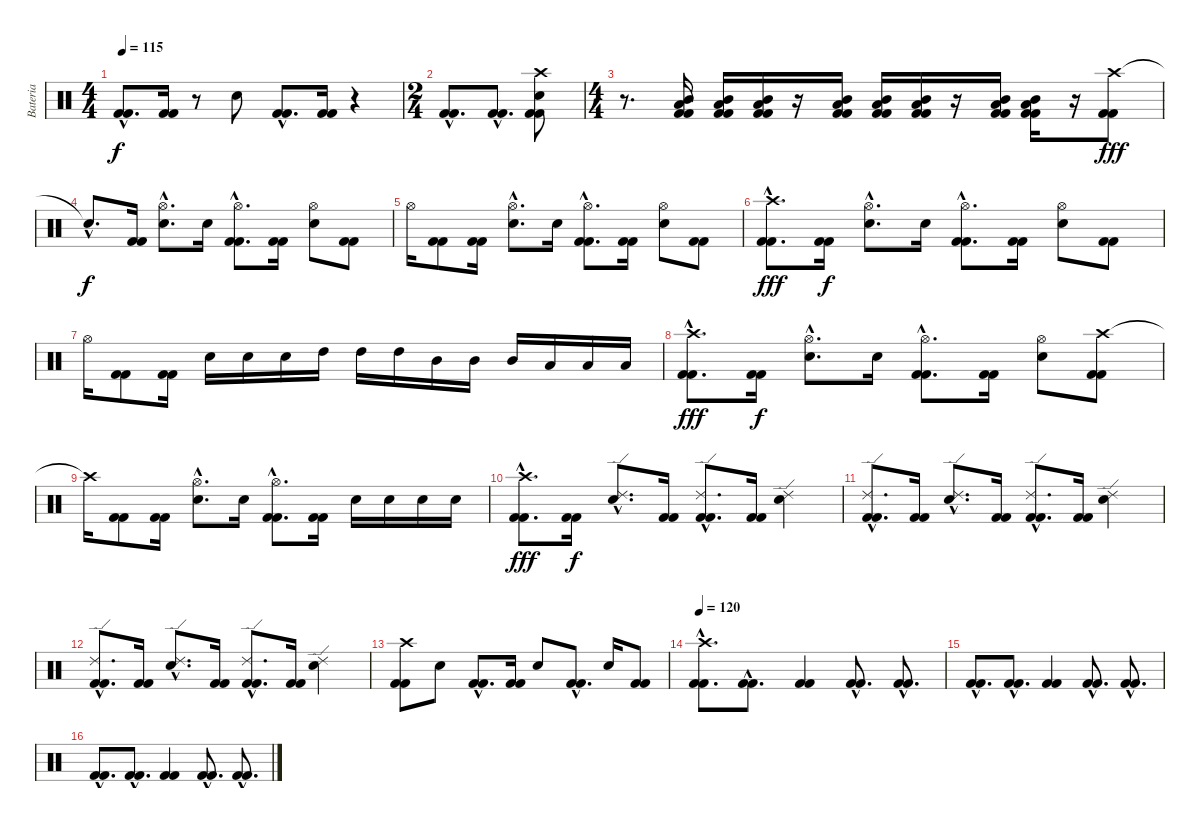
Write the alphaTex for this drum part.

\track ("Bateria" "Bateria") {instrument percussion}
\staff {score}
\articulation defaults
\ts (4 4)
\tempo 115
\clef neutral
\ks c
("Kick (hit) 2"{hac} "Kick (hit) 2"{hac}).8{d dy f} ("Kick (hit) 2" "Kick (hit) 2").16 r.8 "Electric Snare (hit)".8 ("Kick (hit) 2"{hac} "Kick (hit) 2"{hac}).8{d} ("Kick (hit) 2" "Kick (hit) 2").16 r.4 |
\ts (2 4)
("Kick (hit) 2"{hac} "Kick (hit) 2"{hac}).8{d} ("Kick (hit) 2"{hac} "Kick (hit) 2"{hac}).8{d} ("Crash high (hit)" "Electric Snare (hit)" "Kick (hit) 2" "Kick (hit) 2").8 |
\ts (4 4)
r.8{d} ("Mid Tom (hit)" "Low Tom (hit)" "Kick (hit) 2" "Kick (hit) 2").16 ("Mid Tom (hit)" "Low Tom (hit)" "Kick (hit) 2" "Kick (hit) 2").16 ("Mid Tom (hit)" "Low Tom (hit)" "Kick (hit) 2" "Kick (hit) 2").16 r.16 ("Mid Tom (hit)" "Low Tom (hit)" "Kick (hit) 2" "Kick (hit) 2").16 ("Mid Tom (hit)" "Low Tom (hit)" "Kick (hit) 2" "Kick (hit) 2").16 ("Mid Tom (hit)" "Low Tom (hit)" "Kick (hit) 2" "Kick (hit) 2").16 r.16 ("Mid Tom (hit)" "Low Tom (hit)" "Kick (hit) 2" "Kick (hit) 2").16 ("Mid Tom (hit)" "Low Tom (hit)" "Kick (hit) 2" "Kick (hit) 2").16 r.16 ("Crash high (hit)" "Kick (hit) 2" "Kick (hit) 2").8{dy fff} |
"Snare (hit)"{hac t}.8{d dy f} ("Kick (hit) 2" "Kick (hit) 2").16 ("Hi-Hat (open)"{hac} "Electric Snare (hit)"{hac}).8{d} "Electric Snare (hit)".16 ("Hi-Hat (open)"{hac} "Kick (hit) 2"{hac} "Kick (hit) 2"{hac}).8{d} ("Kick (hit) 2" "Kick (hit) 2").16 ("Hi-Hat (open)" "Electric Snare (hit)").8 ("Kick (hit) 2" "Kick (hit) 2").8 |
"Hi-Hat (open)".16 ("Kick (hit) 2" "Kick (hit) 2").8 ("Kick (hit) 2" "Kick (hit) 2").16 ("Hi-Hat (open)"{hac} "Electric Snare (hit)"{hac}).8{d} "Electric Snare (hit)".16 ("Hi-Hat (open)"{hac} "Kick (hit) 2"{hac} "Kick (hit) 2"{hac}).8{d} ("Kick (hit) 2" "Kick (hit) 2").16 ("Hi-Hat (open)" "Electric Snare (hit)").8 ("Kick (hit) 2" "Kick (hit) 2").8 |
("Crash high (hit)" "Kick (hit) 2"{hac} "Kick (hit) 2"{hac}).8{d dy fff} ("Kick (hit) 2" "Kick (hit) 2").16{dy f} ("Hi-Hat (open)"{hac} "Electric Snare (hit)"{hac}).8{d} "Electric Snare (hit)".16 ("Hi-Hat (open)"{hac} "Kick (hit) 2"{hac} "Kick (hit) 2"{hac}).8{d} ("Kick (hit) 2" "Kick (hit) 2").16 ("Hi-Hat (open)" "Electric Snare (hit)").8 ("Kick (hit) 2" "Kick (hit) 2").8 |
"Hi-Hat (open)".16 ("Kick (hit) 2" "Kick (hit) 2").8 ("Kick (hit) 2" "Kick (hit) 2").16 "Electric Snare (hit)".16 "Electric Snare (hit)".16 "Electric Snare (hit)".16 "High Tom (hit)".16 "High Tom (hit)".16 "High Tom (hit)".16 "Mid Tom (hit)".16 "Mid Tom (hit)".16 "Mid Tom (hit)".16 "Low Tom (hit)".16 "Low Tom (hit)".16 "Low Tom (hit)".16 |
("Crash high (hit)" "Kick (hit) 2"{hac} "Kick (hit) 2"{hac}).8{d dy fff} ("Kick (hit) 2" "Kick (hit) 2").16{dy f} ("Hi-Hat (open)"{hac} "Electric Snare (hit)"{hac}).8{d} "Electric Snare (hit)".16 ("Hi-Hat (open)"{hac} "Kick (hit) 2"{hac} "Kick (hit) 2"{hac}).8{d} ("Kick (hit) 2" "Kick (hit) 2").16 ("Hi-Hat (open)" "Electric Snare (hit)").8 ("Crash high (hit)" "Kick (hit) 2" "Kick (hit) 2").8 |
"Crash high (hit)"{t}.16 ("Kick (hit) 2" "Kick (hit) 2").8 ("Kick (hit) 2" "Kick (hit) 2").16 ("Hi-Hat (open)"{hac} "Electric Snare (hit)"{hac}).8{d} "Electric Snare (hit)".16 ("Hi-Hat (open)"{hac} "Kick (hit) 2"{hac} "Kick (hit) 2"{hac}).8{d} ("Kick (hit) 2" "Kick (hit) 2").16 "Electric Snare (hit)".16 "Electric Snare (hit)".16 "Electric Snare (hit)".16 "Electric Snare (hit)".16 |
("Crash high (hit)" "Kick (hit) 2"{hac} "Kick (hit) 2"{hac}).8{d dy fff} ("Kick (hit) 2" "Kick (hit) 2").16{dy f} ("Ride (edge) 2"{hac} "Electric Snare (hit)"{hac}).8{d} ("Kick (hit) 2" "Kick (hit) 2").16 ("Ride (edge) 2"{hac} "Kick (hit) 2"{hac} "Kick (hit) 2"{hac}).8{d} ("Kick (hit) 2" "Kick (hit) 2").16 ("Ride (edge) 2" "Electric Snare (hit)").4 |
("Ride (edge) 2"{hac} "Kick (hit) 2"{hac} "Kick (hit) 2"{hac}).8{d} ("Kick (hit) 2" "Kick (hit) 2").16 ("Ride (edge) 2"{hac} "Electric Snare (hit)"{hac}).8{d} ("Kick (hit) 2" "Kick (hit) 2").16 ("Ride (edge) 2"{hac} "Kick (hit) 2"{hac} "Kick (hit) 2"{hac}).8{d} ("Kick (hit) 2" "Kick (hit) 2").16 ("Ride (edge) 2" "Electric Snare (hit)").4 |
("Ride (edge) 2"{hac} "Kick (hit) 2"{hac} "Kick (hit) 2"{hac}).8{d} ("Kick (hit) 2" "Kick (hit) 2").16 ("Ride (edge) 2"{hac} "Electric Snare (hit)"{hac}).8{d} ("Kick (hit) 2" "Kick (hit) 2").16 ("Ride (edge) 2"{hac} "Kick (hit) 2"{hac} "Kick (hit) 2"{hac}).8{d} ("Kick (hit) 2" "Kick (hit) 2").16 ("Ride (edge) 2" "Electric Snare (hit)").4 |
("Crash high (hit)" "Kick (hit) 2" "Kick (hit) 2").8 "Electric Snare (hit)".8 ("Kick (hit) 2"{hac} "Kick (hit) 2"{hac}).8{d} ("Kick (hit) 2" "Kick (hit) 2").16 "Electric Snare (hit)".8 ("Kick (hit) 2"{hac} "Kick (hit) 2"{hac}).8{d} "Electric Snare (hit)".16 ("Kick (hit) 2" "Kick (hit) 2").8 |
\tempo 120
("Crash high (hit)"{hac} "Kick (hit) 2"{hac} "Kick (hit) 2"{hac}).8{d} ("Kick (hit) 2"{hac} "Kick (hit) 2"{hac}).8{d} ("Kick (hit) 2" "Kick (hit) 2").4 ("Kick (hit) 2"{hac} "Kick (hit) 2"{hac}).8{d} ("Kick (hit) 2"{hac} "Kick (hit) 2"{hac}).8{d} |
("Kick (hit) 2"{hac} "Kick (hit) 2"{hac}).8{d} ("Kick (hit) 2"{hac} "Kick (hit) 2"{hac}).8{d} ("Kick (hit) 2" "Kick (hit) 2").4 ("Kick (hit) 2"{hac} "Kick (hit) 2"{hac}).8{d} ("Kick (hit) 2"{hac} "Kick (hit) 2"{hac}).8{d} |
("Kick (hit) 2"{hac} "Kick (hit) 2"{hac}).8{d} ("Kick (hit) 2"{hac} "Kick (hit) 2"{hac}).8{d} ("Kick (hit) 2" "Kick (hit) 2").4 ("Kick (hit) 2"{hac} "Kick (hit) 2"{hac}).8{d} ("Kick (hit) 2"{hac} "Kick (hit) 2"{hac}).8{d}
